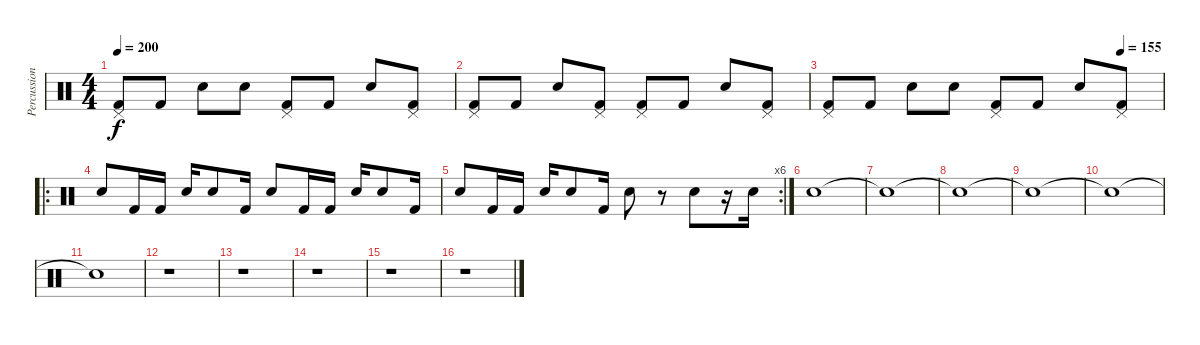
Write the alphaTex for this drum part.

\track ("Percussion" "Percussion") {instrument percussion}
\staff {score}
\articulation defaults
\ts (4 4)
\tempo 200
\clef neutral
\ks c
("Pedal Hi-Hat (hit)" "Kick (hit) 2").8{dy f} "Kick (hit) 2".8 "Snare (hit) 2".8 "Snare (hit) 2".8 ("Pedal Hi-Hat (hit)" "Kick (hit) 2").8 "Kick (hit) 2".8 "Snare (hit) 2".8 ("Pedal Hi-Hat (hit)" "Kick (hit) 2").8 |
("Pedal Hi-Hat (hit)" "Kick (hit) 2").8 "Kick (hit) 2".8 "Snare (hit) 2".8 ("Pedal Hi-Hat (hit)" "Kick (hit) 2").8 ("Pedal Hi-Hat (hit)" "Kick (hit) 2").8 "Kick (hit) 2".8 "Snare (hit) 2".8 ("Pedal Hi-Hat (hit)" "Kick (hit) 2").8 |
\tempo (155 0.875)
("Pedal Hi-Hat (hit)" "Kick (hit) 2").8 "Kick (hit) 2".8 "Snare (hit) 2".8 "Snare (hit) 2".8 ("Pedal Hi-Hat (hit)" "Kick (hit) 2").8 "Kick (hit) 2".8 "Snare (hit) 2".8 ("Pedal Hi-Hat (hit)" "Kick (hit) 2").8 |
\ro "Snare (hit) 2".8 "Kick (hit) 2".16 "Kick (hit) 2".16 "Snare (hit) 2".16 "Snare (hit) 2".8 "Kick (hit) 2".16 "Snare (hit) 2".8 "Kick (hit) 2".16 "Kick (hit) 2".16 "Snare (hit) 2".16 "Snare (hit) 2".8 "Kick (hit) 2".16
|
\rc 6 "Snare (hit) 2".8 "Kick (hit) 2".16 "Kick (hit) 2".16 "Snare (hit) 2".16 "Snare (hit) 2".8 "Kick (hit) 2".16 "Snare (hit) 2".8
r.8 "Snare (hit) 2".8 r.16 "Snare (hit) 2".16 |
"Snare (hit) 2".1 |
"Snare (hit)"{t}.1 |
"Snare (hit)"{t}.1 |
"Snare (hit)"{t}.1 |
"Snare (hit)"{t}.1 |
"Snare (hit)"{t}.1 |
r.1 |
r.1 |
r.1 |
r.1 |
r.1
